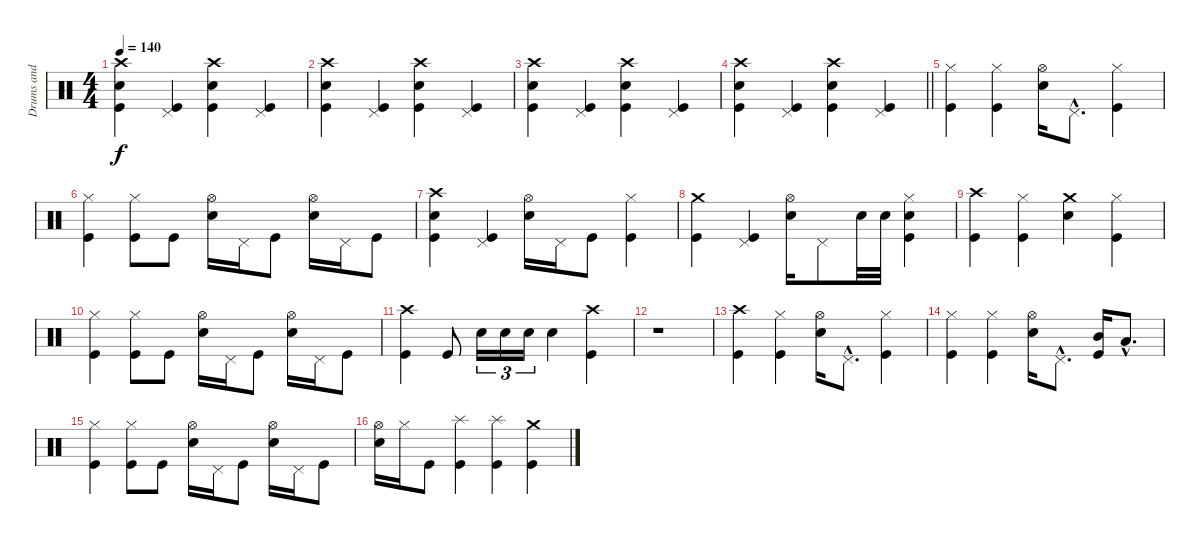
\track ("Drums and percussion" "Drums and ") {instrument percussion}
\staff {score}
\articulation defaults
\ts (4 4)
\tempo 140
\clef neutral
\ks c
("Crash high (hit)" "Electric Snare (hit)" "Kick (hit)").4{dy f} ("Pedal Hi-Hat (hit)" "Kick (hit)").4 ("Crash high (hit)" "Electric Snare (hit)" "Kick (hit)").4 ("Pedal Hi-Hat (hit)" "Kick (hit)").4 |
("Crash high (hit)" "Electric Snare (hit)" "Kick (hit)").4 ("Pedal Hi-Hat (hit)" "Kick (hit)").4 ("Crash high (hit)" "Electric Snare (hit)" "Kick (hit)").4 ("Pedal Hi-Hat (hit)" "Kick (hit)").4 |
("Crash high (hit)" "Electric Snare (hit)" "Kick (hit)").4 ("Pedal Hi-Hat (hit)" "Kick (hit)").4 ("Crash high (hit)" "Electric Snare (hit)" "Kick (hit)").4 ("Pedal Hi-Hat (hit)" "Kick (hit)").4 |
\barLineRight lightlight
("Crash high (hit)" "Electric Snare (hit)" "Kick (hit)").4 ("Pedal Hi-Hat (hit)" "Kick (hit)").4 ("Crash high (hit)" "Electric Snare (hit)" "Kick (hit)").4 ("Pedal Hi-Hat (hit)" "Kick (hit)").4 |
("Hi-Hat (closed)" "Kick (hit)").4 ("Hi-Hat (closed)" "Kick (hit)").4 ("Hi-Hat (open)" "Electric Snare (hit)").16 "Pedal Hi-Hat (hit)"{hac}.8{d} ("Hi-Hat (closed)" "Kick (hit)").4 |
("Hi-Hat (closed)" "Kick (hit)").4 ("Hi-Hat (closed)" "Kick (hit)").8 "Kick (hit)".8 ("Hi-Hat (open)" "Electric Snare (hit)").16 "Pedal Hi-Hat (hit)".16 "Kick (hit)".8 ("Hi-Hat (open)" "Electric Snare (hit)").16 "Pedal Hi-Hat (hit)".16 "Kick (hit)".8 |
("Crash high (hit)" "Electric Snare (hit)" "Kick (hit)").4 ("Pedal Hi-Hat (hit)" "Kick (hit)").4 ("Hi-Hat (open)" "Electric Snare (hit)").16 "Pedal Hi-Hat (hit)".16 "Kick (hit)".8 ("Hi-Hat (closed)" "Kick (hit)").4 |
("Crash medium (hit)" "Kick (hit)").4 ("Pedal Hi-Hat (hit)" "Kick (hit)").4 ("Hi-Hat (open)" "Electric Snare (hit)").16 "Pedal Hi-Hat (hit)".8 "Electric Snare (hit)".32 "Electric Snare (hit)".32 ("Hi-Hat (closed)" "Electric Snare (hit)" "Kick (hit)").4 |
("Crash high (hit)" "Kick (hit)").4 ("Hi-Hat (closed)" "Kick (hit)").4 ("Crash medium (hit)" "Electric Snare (hit)").4 ("Hi-Hat (closed)" "Kick (hit)").4 |
("Hi-Hat (closed)" "Kick (hit)").4 ("Hi-Hat (closed)" "Kick (hit)").8 "Kick (hit)".8 ("Hi-Hat (open)" "Electric Snare (hit)").16 "Pedal Hi-Hat (hit)".16 "Kick (hit)".8 ("Hi-Hat (open)" "Electric Snare (hit)").16 "Pedal Hi-Hat (hit)".16 "Kick (hit)".8 |
("Crash high (hit)" "Kick (hit)").4 "Kick (hit)".8 "Electric Snare (hit)".16{tu (3 2)} "Electric Snare (hit)".16{tu (3 2)} "Electric Snare (hit)".16{tu (3 2)} "Electric Snare (hit)".4 ("Crash high (hit)" "Kick (hit)").4 |
r.1 |
("Crash high (hit)" "Kick (hit)").4 ("Hi-Hat (closed)" "Kick (hit)").4 ("Hi-Hat (open)" "Electric Snare (hit)").16 "Pedal Hi-Hat (hit)"{hac}.8{d} ("Hi-Hat (closed)" "Kick (hit)").4 |
("Hi-Hat (closed)" "Kick (hit)").4 ("Hi-Hat (closed)" "Kick (hit)").4 ("Hi-Hat (open)" "Electric Snare (hit)").16 "Pedal Hi-Hat (hit)"{hac}.8{d} ("Mid Tom (hit)" "Kick (hit)").16 "Low Floor Tom (hit)"{hac}.8{d} |
("Hi-Hat (closed)" "Kick (hit)").4 ("Hi-Hat (closed)" "Kick (hit)").8 "Kick (hit)".8 ("Hi-Hat (open)" "Electric Snare (hit)").16 "Pedal Hi-Hat (hit)".16 "Kick (hit)".8 ("Hi-Hat (open)" "Electric Snare (hit)").16 "Pedal Hi-Hat (hit)".16 "Kick (hit)".8 |
("Hi-Hat (open)" "Electric Snare (hit)").16 "Hi-Hat (closed)".16 "Kick (hit)".8 ("Splash (hit)" "Kick (hit)").4 ("Splash (hit)" "Kick (hit)").4 ("Crash medium (hit)" "Kick (hit)").4
